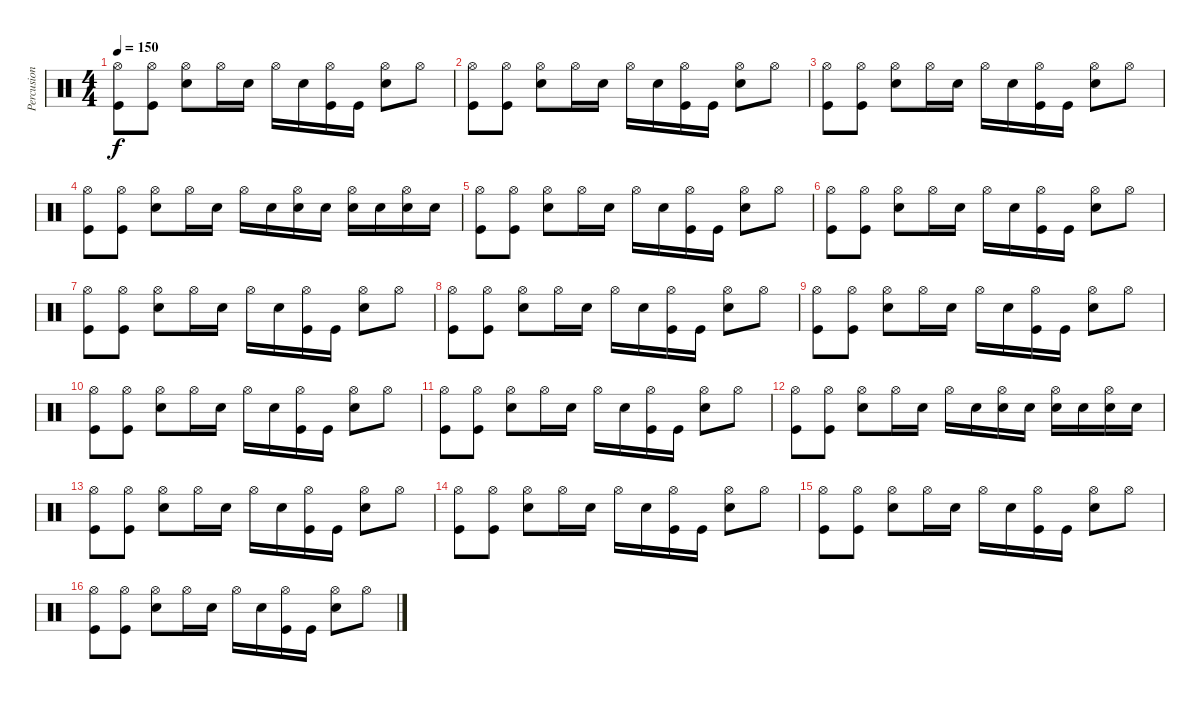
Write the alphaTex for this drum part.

\track ("Percusion" "Percusion") {instrument percussion}
\staff {score}
\articulation defaults
\ts (4 4)
\tempo 150
\clef neutral
\ks c
("Hi-Hat (open)" "Kick (hit)").8{dy f} ("Hi-Hat (open)" "Kick (hit)").8 ("Hi-Hat (open)" "Electric Snare (hit)").8 "Hi-Hat (open)".16 "Electric Snare (hit)".16 "Hi-Hat (open)".16 "Electric Snare (hit)".16 ("Hi-Hat (open)" "Kick (hit)").16 "Kick (hit)".16 ("Hi-Hat (open)" "Electric Snare (hit)").8 "Hi-Hat (open)".8 |
("Hi-Hat (open)" "Kick (hit)").8 ("Hi-Hat (open)" "Kick (hit)").8 ("Hi-Hat (open)" "Electric Snare (hit)").8 "Hi-Hat (open)".16 "Electric Snare (hit)".16 "Hi-Hat (open)".16 "Electric Snare (hit)".16 ("Hi-Hat (open)" "Kick (hit)").16 "Kick (hit)".16 ("Hi-Hat (open)" "Electric Snare (hit)").8 "Hi-Hat (open)".8 |
("Hi-Hat (open)" "Kick (hit)").8 ("Hi-Hat (open)" "Kick (hit)").8 ("Hi-Hat (open)" "Electric Snare (hit)").8 "Hi-Hat (open)".16 "Electric Snare (hit)".16 "Hi-Hat (open)".16 "Electric Snare (hit)".16 ("Hi-Hat (open)" "Kick (hit)").16 "Kick (hit)".16 ("Hi-Hat (open)" "Electric Snare (hit)").8 "Hi-Hat (open)".8 |
("Hi-Hat (open)" "Kick (hit)").8 ("Hi-Hat (open)" "Kick (hit)").8 ("Hi-Hat (open)" "Electric Snare (hit)").8 "Hi-Hat (open)".16 "Electric Snare (hit)".16 "Hi-Hat (open)".16 "Electric Snare (hit)".16 ("Hi-Hat (open)" "Electric Snare (hit)").16 "Electric Snare (hit)".16 ("Hi-Hat (open)" "Electric Snare (hit)").16 "Electric Snare (hit)".16 ("Hi-Hat (open)" "Electric Snare (hit)").16 "Electric Snare (hit)".16 |
("Hi-Hat (open)" "Kick (hit)").8 ("Hi-Hat (open)" "Kick (hit)").8 ("Hi-Hat (open)" "Electric Snare (hit)").8 "Hi-Hat (open)".16 "Electric Snare (hit)".16 "Hi-Hat (open)".16 "Electric Snare (hit)".16 ("Hi-Hat (open)" "Kick (hit)").16 "Kick (hit)".16 ("Hi-Hat (open)" "Electric Snare (hit)").8 "Hi-Hat (open)".8 |
("Hi-Hat (open)" "Kick (hit)").8 ("Hi-Hat (open)" "Kick (hit)").8 ("Hi-Hat (open)" "Electric Snare (hit)").8 "Hi-Hat (open)".16 "Electric Snare (hit)".16 "Hi-Hat (open)".16 "Electric Snare (hit)".16 ("Hi-Hat (open)" "Kick (hit)").16 "Kick (hit)".16 ("Hi-Hat (open)" "Electric Snare (hit)").8 "Hi-Hat (open)".8 |
("Hi-Hat (open)" "Kick (hit)").8 ("Hi-Hat (open)" "Kick (hit)").8 ("Hi-Hat (open)" "Electric Snare (hit)").8 "Hi-Hat (open)".16 "Electric Snare (hit)".16 "Hi-Hat (open)".16 "Electric Snare (hit)".16 ("Hi-Hat (open)" "Kick (hit)").16 "Kick (hit)".16 ("Hi-Hat (open)" "Electric Snare (hit)").8 "Hi-Hat (open)".8 |
("Hi-Hat (open)" "Kick (hit)").8 ("Hi-Hat (open)" "Kick (hit)").8 ("Hi-Hat (open)" "Electric Snare (hit)").8 "Hi-Hat (open)".16 "Electric Snare (hit)".16 "Hi-Hat (open)".16 "Electric Snare (hit)".16 ("Hi-Hat (open)" "Kick (hit)").16 "Kick (hit)".16 ("Hi-Hat (open)" "Electric Snare (hit)").8 "Hi-Hat (open)".8 |
("Hi-Hat (open)" "Kick (hit)").8 ("Hi-Hat (open)" "Kick (hit)").8 ("Hi-Hat (open)" "Electric Snare (hit)").8 "Hi-Hat (open)".16 "Electric Snare (hit)".16 "Hi-Hat (open)".16 "Electric Snare (hit)".16 ("Hi-Hat (open)" "Kick (hit)").16 "Kick (hit)".16 ("Hi-Hat (open)" "Electric Snare (hit)").8 "Hi-Hat (open)".8 |
("Hi-Hat (open)" "Kick (hit)").8 ("Hi-Hat (open)" "Kick (hit)").8 ("Hi-Hat (open)" "Electric Snare (hit)").8 "Hi-Hat (open)".16 "Electric Snare (hit)".16 "Hi-Hat (open)".16 "Electric Snare (hit)".16 ("Hi-Hat (open)" "Kick (hit)").16 "Kick (hit)".16 ("Hi-Hat (open)" "Electric Snare (hit)").8 "Hi-Hat (open)".8 |
("Hi-Hat (open)" "Kick (hit)").8 ("Hi-Hat (open)" "Kick (hit)").8 ("Hi-Hat (open)" "Electric Snare (hit)").8 "Hi-Hat (open)".16 "Electric Snare (hit)".16 "Hi-Hat (open)".16 "Electric Snare (hit)".16 ("Hi-Hat (open)" "Kick (hit)").16 "Kick (hit)".16 ("Hi-Hat (open)" "Electric Snare (hit)").8 "Hi-Hat (open)".8 |
("Hi-Hat (open)" "Kick (hit)").8 ("Hi-Hat (open)" "Kick (hit)").8 ("Hi-Hat (open)" "Electric Snare (hit)").8 "Hi-Hat (open)".16 "Electric Snare (hit)".16 "Hi-Hat (open)".16 "Electric Snare (hit)".16 ("Hi-Hat (open)" "Electric Snare (hit)").16 "Electric Snare (hit)".16 ("Hi-Hat (open)" "Electric Snare (hit)").16 "Electric Snare (hit)".16 ("Hi-Hat (open)" "Electric Snare (hit)").16 "Electric Snare (hit)".16 |
("Hi-Hat (open)" "Kick (hit)").8 ("Hi-Hat (open)" "Kick (hit)").8 ("Hi-Hat (open)" "Electric Snare (hit)").8 "Hi-Hat (open)".16 "Electric Snare (hit)".16 "Hi-Hat (open)".16 "Electric Snare (hit)".16 ("Hi-Hat (open)" "Kick (hit)").16 "Kick (hit)".16 ("Hi-Hat (open)" "Electric Snare (hit)").8 "Hi-Hat (open)".8 |
("Hi-Hat (open)" "Kick (hit)").8 ("Hi-Hat (open)" "Kick (hit)").8 ("Hi-Hat (open)" "Electric Snare (hit)").8 "Hi-Hat (open)".16 "Electric Snare (hit)".16 "Hi-Hat (open)".16 "Electric Snare (hit)".16 ("Hi-Hat (open)" "Kick (hit)").16 "Kick (hit)".16 ("Hi-Hat (open)" "Electric Snare (hit)").8 "Hi-Hat (open)".8 |
("Hi-Hat (open)" "Kick (hit)").8 ("Hi-Hat (open)" "Kick (hit)").8 ("Hi-Hat (open)" "Electric Snare (hit)").8 "Hi-Hat (open)".16 "Electric Snare (hit)".16 "Hi-Hat (open)".16 "Electric Snare (hit)".16 ("Hi-Hat (open)" "Kick (hit)").16 "Kick (hit)".16 ("Hi-Hat (open)" "Electric Snare (hit)").8 "Hi-Hat (open)".8 |
("Hi-Hat (open)" "Kick (hit)").8 ("Hi-Hat (open)" "Kick (hit)").8 ("Hi-Hat (open)" "Electric Snare (hit)").8 "Hi-Hat (open)".16 "Electric Snare (hit)".16 "Hi-Hat (open)".16 "Electric Snare (hit)".16 ("Hi-Hat (open)" "Kick (hit)").16 "Kick (hit)".16 ("Hi-Hat (open)" "Electric Snare (hit)").8 "Hi-Hat (open)".8
